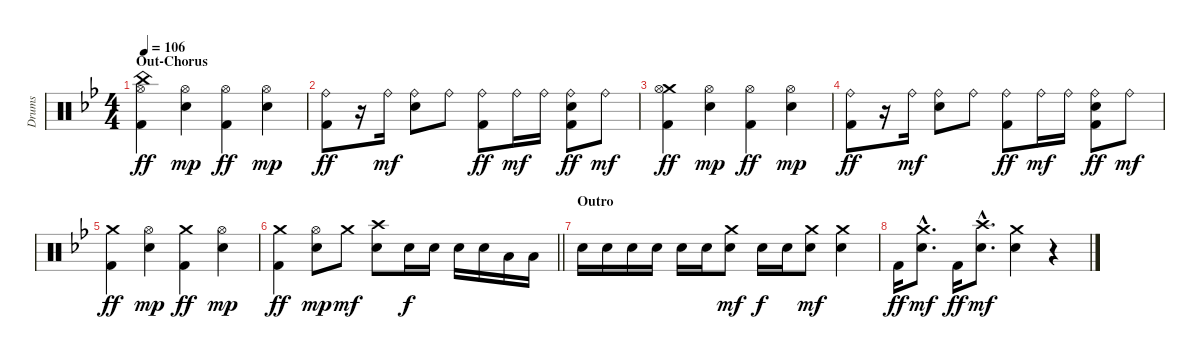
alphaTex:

\track ("Drums" "Drums") {instrument percussion}
\staff {score}
\articulation defaults
\ts (4 4)
\section ("" "Out-Chorus")
\tempo 106
\clef neutral
\ks bb
("China (hit)" "Hi-Hat (open)" "Kick (hit) 2").4{dy ff} ("Hi-Hat (open)" "Electric Snare (hit)").4{dy mp} ("Hi-Hat (open)" "Kick (hit) 2").4{dy ff} ("Hi-Hat (open)" "Electric Snare (hit)").4{dy mp} |
("Ride (bell)" "Kick (hit) 2").8{dy ff} r.16 "Ride (bell)".16{dy mf} ("Ride (bell)" "Electric Snare (hit)").8 "Ride (bell)".8 ("Ride (bell)" "Kick (hit) 2").8{dy ff} "Ride (bell)".16{dy mf} "Ride (bell)".16 ("Ride (bell)" "Electric Snare (hit)" "Kick (hit) 2").8{dy ff} "Ride (bell)".8{dy mf} |
("Crash medium (hit)" "Hi-Hat (open)" "Kick (hit) 2").4{dy ff} ("Hi-Hat (open)" "Electric Snare (hit)").4{dy mp} ("Hi-Hat (open)" "Kick (hit) 2").4{dy ff} ("Hi-Hat (open)" "Electric Snare (hit)").4{dy mp} |
("Ride (bell)" "Kick (hit) 2").8{dy ff} r.16 "Ride (bell)".16{dy mf} ("Ride (bell)" "Electric Snare (hit)").8 "Ride (bell)".8 ("Ride (bell)" "Kick (hit) 2").8{dy ff} "Ride (bell)".16{dy mf} "Ride (bell)".16 ("Ride (bell)" "Electric Snare (hit)" "Kick (hit) 2").8{dy ff} "Ride (bell)".8{dy mf} |
("Crash medium (hit)" "Kick (hit) 2").4{dy ff} ("Hi-Hat (open)" "Electric Snare (hit)").4{dy mp} ("Crash medium (hit)" "Kick (hit) 2").4{dy ff} ("Hi-Hat (open)" "Electric Snare (hit)").4{dy mp} |
\barLineRight lightlight
("Crash medium (hit)" "Kick (hit) 2").4{dy ff} ("Hi-Hat (open)" "Electric Snare (hit)").8{dy mp} "Crash medium (hit)".8{dy mf} ("Crash high (hit)" "Electric Snare (hit)").8 "Electric Snare (hit)".16{dy f} "Electric Snare (hit)".16 "Electric Snare (hit)".16 "Electric Snare (hit)".16 "Low Tom (hit)".16 "Low Tom (hit)".16 |
\section ("" "Outro")
"Electric Snare (hit)".16 "Electric Snare (hit)".16 "Electric Snare (hit)".16 "Electric Snare (hit)".16 "Electric Snare (hit)".16 "Electric Snare (hit)".16 ("Crash medium (hit)" "Electric Snare (hit)").8{dy mf} "Electric Snare (hit)".16{dy f} "Electric Snare (hit)".16 ("Crash medium (hit)" "Electric Snare (hit)").8{dy mf} ("Crash medium (hit)" "Electric Snare (hit)").4 |
"Kick (hit) 2".16{dy ff} ("Crash medium (hit)"{hac} "Electric Snare (hit)"{hac}).8{d dy mf} "Kick (hit) 2".16{dy ff} ("Crash high (hit)"{hac} "Electric Snare (hit)"{hac}).8{d dy mf} ("Crash medium (hit)" "Electric Snare (hit)").4 r.4
